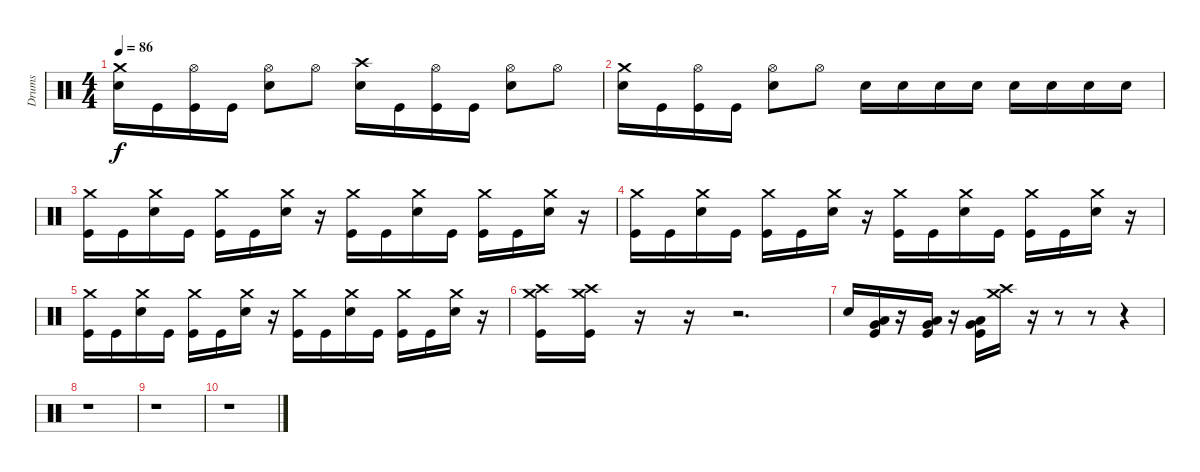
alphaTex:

\track ("Drums" "Drums") {instrument percussion}
\staff {score}
\articulation defaults
\ts (4 4)
\tempo 86
\clef neutral
\ks c
("Crash medium (hit)" "Electric Snare (hit)").16{dy f} "Kick (hit)".16 ("Hi-Hat (open)" "Kick (hit)").16 "Kick (hit)".16 ("Hi-Hat (open)" "Electric Snare (hit)").8 "Hi-Hat (open)".8 ("Crash high (hit)" "Electric Snare (hit)").16 "Kick (hit)".16 ("Hi-Hat (open)" "Kick (hit)").16 "Kick (hit)".16 ("Hi-Hat (open)" "Electric Snare (hit)").8 "Hi-Hat (open)".8 |
("Crash medium (hit)" "Electric Snare (hit)").16 "Kick (hit)".16 ("Hi-Hat (open)" "Kick (hit)").16 "Kick (hit)".16 ("Hi-Hat (open)" "Electric Snare (hit)").8 "Hi-Hat (open)".8 "Electric Snare (hit)".16 "Electric Snare (hit)".16 "Electric Snare (hit)".16 "Electric Snare (hit)".16 "Electric Snare (hit)".16 "Electric Snare (hit)".16 "Electric Snare (hit)".16 "Electric Snare (hit)".16 |
("Crash medium (hit)" "Kick (hit)").16 "Kick (hit)".16 ("Crash medium (hit)" "Electric Snare (hit)").16 "Kick (hit)".16 ("Crash medium (hit)" "Kick (hit)").16 "Kick (hit)".16 ("Crash medium (hit)" "Electric Snare (hit)").16 r.16 ("Crash medium (hit)" "Kick (hit)").16 "Kick (hit)".16 ("Crash medium (hit)" "Electric Snare (hit)").16 "Kick (hit)".16 ("Crash medium (hit)" "Kick (hit)").16 "Kick (hit)".16 ("Crash medium (hit)" "Electric Snare (hit)").16 r.16 |
("Crash medium (hit)" "Kick (hit)").16 "Kick (hit)".16 ("Crash medium (hit)" "Electric Snare (hit)").16 "Kick (hit)".16 ("Crash medium (hit)" "Kick (hit)").16 "Kick (hit)".16 ("Crash medium (hit)" "Electric Snare (hit)").16 r.16 ("Crash medium (hit)" "Kick (hit)").16 "Kick (hit)".16 ("Crash medium (hit)" "Electric Snare (hit)").16 "Kick (hit)".16 ("Crash medium (hit)" "Kick (hit)").16 "Kick (hit)".16 ("Crash medium (hit)" "Electric Snare (hit)").16 r.16 |
("Crash medium (hit)" "Kick (hit)").16 "Kick (hit)".16 ("Crash medium (hit)" "Electric Snare (hit)").16 "Kick (hit)".16 ("Crash medium (hit)" "Kick (hit)").16 "Kick (hit)".16 ("Crash medium (hit)" "Electric Snare (hit)").16 r.16 ("Crash medium (hit)" "Kick (hit)").16 "Kick (hit)".16 ("Crash medium (hit)" "Electric Snare (hit)").16 "Kick (hit)".16 ("Crash medium (hit)" "Kick (hit)").16 "Kick (hit)".16 ("Crash medium (hit)" "Electric Snare (hit)").16 r.16 |
("Crash medium (hit)" "Crash high (hit)" "Kick (hit)").16 ("Crash medium (hit)" "Crash high (hit)" "Kick (hit)").16 r.16 r.16 r.2{d} |
"Electric Snare (hit)".16 ("Low Floor Tom (hit)" "Very Low Tom (hit)" "Kick (hit)").16 r.16 ("Low Tom (hit)" "Very Low Tom (hit)" "Kick (hit)").16 r.16 ("Very Low Tom (hit)" "Low Floor Tom (hit)" "Kick (hit)").16 ("Crash high (hit)" "Crash medium (hit)").16 r.16 r.8 r.8 r.4 |
r.1 |
r.1 |
r.1
